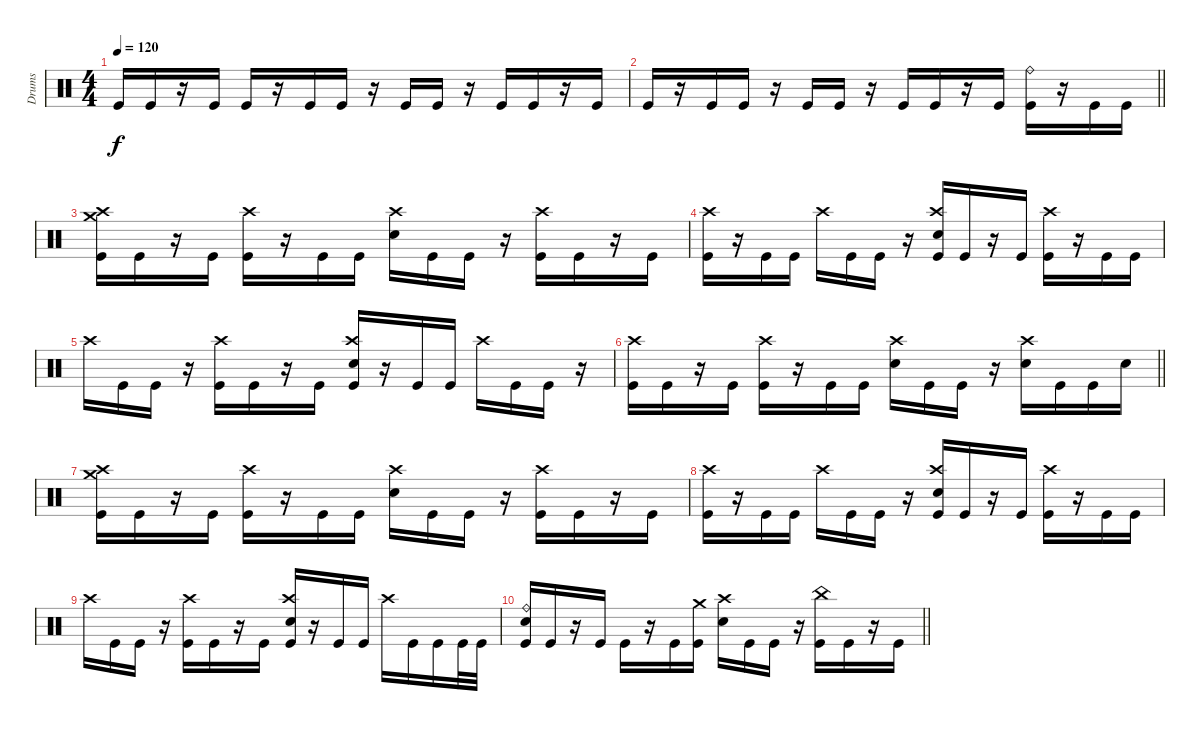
\track ("Drums" "Drums") {instrument percussion}
\staff
\articulation defaults
\ts (4 4)
\tempo 120
\clef neutral
\ks c "Kick (hit)".16{dy f} "Kick (hit)".16
r.16 "Kick (hit)".16 "Kick (hit)".16 r.16 "Kick (hit)".16 "Kick (hit)".16 r.16 "Kick (hit)".16 "Kick (hit)".16 r.16 "Kick (hit)".16 "Kick (hit)".16 r.16 "Kick (hit)".16 |
\barLineRight lightlight "Kick (hit)".16
r.16 "Kick (hit)".16 "Kick (hit)".16 r.16 "Kick (hit)".16 "Kick (hit)".16 r.16 "Kick (hit)".16 "Kick (hit)".16 r.16 "Kick (hit)".16 ("Ride (bell)" "Kick (hit)").16 r.16 "Kick (hit)".16 "Kick (hit)".16 |
\section ("" "")
("Crash high (hit)" "Crash medium (hit)" "Kick (hit)").16 "Kick (hit)".16 r.16 "Kick (hit)".16 ("Crash high (hit)" "Kick (hit)").16 r.16 "Kick (hit)".16 "Kick (hit)".16 ("Crash high (hit)" "Electric Snare (hit)").16 "Kick (hit)".16 "Kick (hit)".16 r.16 ("Crash high (hit)" "Kick (hit)").16 "Kick (hit)".16 r.16 "Kick (hit)".16 |
("Crash high (hit)" "Kick (hit)").16 r.16 "Kick (hit)".16 "Kick (hit)".16 "Crash high (hit)".16 "Kick (hit)".16 "Kick (hit)".16 r.16 ("Crash high (hit)" "Electric Snare (hit)" "Kick (hit)").16 "Kick (hit)".16 r.16 "Kick (hit)".16 ("Crash high (hit)" "Kick (hit)").16 r.16 "Kick (hit)".16 "Kick (hit)".16 |
"Crash high (hit)".16 "Kick (hit)".16 "Kick (hit)".16 r.16 ("Crash high (hit)" "Kick (hit)").16 "Kick (hit)".16 r.16 "Kick (hit)".16 ("Crash high (hit)" "Electric Snare (hit)" "Kick (hit)").16 r.16 "Kick (hit)".16 "Kick (hit)".16 "Crash high (hit)".16 "Kick (hit)".16 "Kick (hit)".16 r.16 |
\barLineRight lightlight
("Crash high (hit)" "Kick (hit)").16 "Kick (hit)".16 r.16 "Kick (hit)".16 ("Crash high (hit)" "Kick (hit)").16 r.16 "Kick (hit)".16 "Kick (hit)".16 ("Crash high (hit)" "Electric Snare (hit)").16 "Kick (hit)".16 "Kick (hit)".16 r.16 ("Crash high (hit)" "Electric Snare (hit)").16 "Kick (hit)".16 "Kick (hit)".16 "Electric Snare (hit)".16 |
("Crash high (hit)" "Crash medium (hit)" "Kick (hit)").16 "Kick (hit)".16 r.16 "Kick (hit)".16 ("Crash high (hit)" "Kick (hit)").16 r.16 "Kick (hit)".16 "Kick (hit)".16 ("Crash high (hit)" "Electric Snare (hit)").16 "Kick (hit)".16 "Kick (hit)".16 r.16 ("Crash high (hit)" "Kick (hit)").16 "Kick (hit)".16 r.16 "Kick (hit)".16 |
("Crash high (hit)" "Kick (hit)").16 r.16 "Kick (hit)".16 "Kick (hit)".16 "Crash high (hit)".16 "Kick (hit)".16 "Kick (hit)".16 r.16 ("Crash high (hit)" "Electric Snare (hit)" "Kick (hit)").16 "Kick (hit)".16 r.16 "Kick (hit)".16 ("Crash high (hit)" "Kick (hit)").16 r.16 "Kick (hit)".16 "Kick (hit)".16 |
"Crash high (hit)".16 "Kick (hit)".16 "Kick (hit)".16 r.16 ("Crash high (hit)" "Kick (hit)").16 "Kick (hit)".16 r.16 "Kick (hit)".16 ("Crash high (hit)" "Electric Snare (hit)" "Kick (hit)").16 r.16 "Kick (hit)".16 "Kick (hit)".16 "Crash high (hit)".16 "Kick (hit)".16 "Kick (hit)".16 "Kick (hit)".32 "Kick (hit)".32 |
\barLineRight lightlight
("Ride (bell)" "Electric Snare (hit)" "Kick (hit)").16 "Kick (hit)".16 r.16 "Kick (hit)".16 "Kick (hit)".16 r.16 "Kick (hit)".16 ("Crash medium (hit)" "Kick (hit)").16 ("Crash high (hit)" "Electric Snare (hit)").16 "Kick (hit)".16 "Kick (hit)".16 r.16 ("China (hit)" "Kick (hit)").16 "Kick (hit)".16 r.16 "Kick (hit)".16
